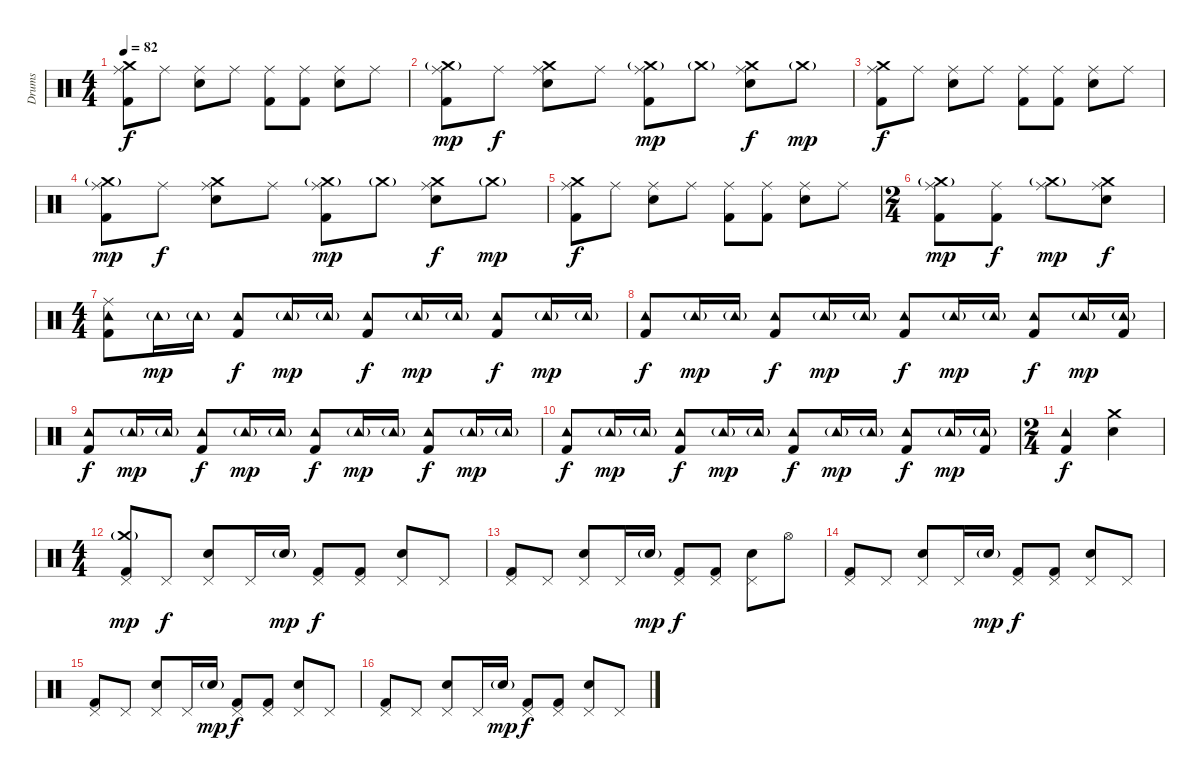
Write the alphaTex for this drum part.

\track ("Drums" "Drums") {instrument percussion}
\staff {score}
\articulation defaults
\ts (4 4)
\tempo 82
\clef neutral
\ks c
("Ride (middle)" "Kick (hit) 2" "Crash medium (hit)").8{dy f} "Ride (middle)".8 ("Ride (middle)" "Snare (hit) 2").8 "Ride (middle)".8 ("Ride (middle)" "Kick (hit) 2").8 ("Ride (middle)" "Kick (hit) 2").8 ("Ride (middle)" "Snare (hit) 2").8 "Ride (middle)".8 |
("Ride (middle)" "Kick (hit) 2" "Crash medium (hit)"{g}).8{dy mp} "Ride (middle)".8{dy f} ("Ride (middle)" "Snare (hit) 2" "Crash medium (hit)").8 "Ride (middle)".8 ("Ride (middle)" "Kick (hit) 2" "Crash medium (hit)"{g}).8{dy mp} "Crash medium (hit)"{g}.8 ("Ride (middle)" "Snare (hit) 2" "Crash medium (hit)").8{dy f} "Crash medium (hit)"{g}.8{dy mp} |
("Ride (middle)" "Kick (hit) 2" "Crash medium (hit)").8{dy f} "Ride (middle)".8 ("Ride (middle)" "Snare (hit) 2").8 "Ride (middle)".8 ("Ride (middle)" "Kick (hit) 2").8 ("Ride (middle)" "Kick (hit) 2").8 ("Ride (middle)" "Snare (hit) 2").8 "Ride (middle)".8 |
("Ride (middle)" "Kick (hit) 2" "Crash medium (hit)"{g}).8{dy mp} "Ride (middle)".8{dy f} ("Ride (middle)" "Snare (hit) 2" "Crash medium (hit)").8 "Ride (middle)".8 ("Ride (middle)" "Kick (hit) 2" "Crash medium (hit)"{g}).8{dy mp} "Crash medium (hit)"{g}.8 ("Ride (middle)" "Snare (hit) 2" "Crash medium (hit)").8{dy f} "Crash medium (hit)"{g}.8{dy mp} |
("Ride (middle)" "Kick (hit) 2" "Crash medium (hit)").8{dy f} "Ride (middle)".8 ("Ride (middle)" "Snare (hit) 2").8 "Ride (middle)".8 ("Ride (middle)" "Kick (hit) 2").8 ("Ride (middle)" "Kick (hit) 2").8 ("Ride (middle)" "Snare (hit) 2").8 "Ride (middle)".8 |
\ts (2 4)
("Ride (middle)" "Kick (hit) 2" "Crash medium (hit)"{g}).8{dy mp} ("Ride (middle)" "Kick (hit) 2").8{dy f} ("Ride (middle)" "Crash medium (hit)"{g}).8{dy mp} ("Ride (middle)" "Snare (hit) 2" "Crash medium (hit)").8{dy f} |
\ts (4 4)
("Tambourine (hit)" "Kick (hit) 2" "Ride (middle)").8 "Tambourine (hit)"{g}.16{dy mp} "Tambourine (hit)"{g}.16 ("Tambourine (hit)" "Kick (hit) 2").8{dy f} "Tambourine (hit)"{g}.16{dy mp} "Tambourine (hit)"{g}.16 ("Tambourine (hit)" "Kick (hit) 2").8{dy f} "Tambourine (hit)"{g}.16{dy mp} "Tambourine (hit)"{g}.16 ("Tambourine (hit)" "Kick (hit) 2").8{dy f} "Tambourine (hit)"{g}.16{dy mp} "Tambourine (hit)"{g}.16 |
("Tambourine (hit)" "Kick (hit) 2").8{dy f} "Tambourine (hit)"{g}.16{dy mp} "Tambourine (hit)"{g}.16 ("Tambourine (hit)" "Kick (hit) 2").8{dy f} "Tambourine (hit)"{g}.16{dy mp} "Tambourine (hit)"{g}.16 ("Tambourine (hit)" "Kick (hit) 2").8{dy f} "Tambourine (hit)"{g}.16{dy mp} "Tambourine (hit)"{g}.16 ("Tambourine (hit)" "Kick (hit) 2").8{dy f} "Tambourine (hit)"{g}.16{dy mp} ("Tambourine (hit)"{g} "Kick (hit) 2").16 |
("Tambourine (hit)" "Kick (hit) 2").8{dy f} "Tambourine (hit)"{g}.16{dy mp} "Tambourine (hit)"{g}.16 ("Tambourine (hit)" "Kick (hit) 2").8{dy f} "Tambourine (hit)"{g}.16{dy mp} "Tambourine (hit)"{g}.16 ("Tambourine (hit)" "Kick (hit) 2").8{dy f} "Tambourine (hit)"{g}.16{dy mp} "Tambourine (hit)"{g}.16 ("Tambourine (hit)" "Kick (hit) 2").8{dy f} "Tambourine (hit)"{g}.16{dy mp} "Tambourine (hit)"{g}.16 |
("Tambourine (hit)" "Kick (hit) 2").8{dy f} "Tambourine (hit)"{g}.16{dy mp} "Tambourine (hit)"{g}.16 ("Tambourine (hit)" "Kick (hit) 2").8{dy f} "Tambourine (hit)"{g}.16{dy mp} "Tambourine (hit)"{g}.16 ("Tambourine (hit)" "Kick (hit) 2").8{dy f} "Tambourine (hit)"{g}.16{dy mp} "Tambourine (hit)"{g}.16 ("Tambourine (hit)" "Kick (hit) 2").8{dy f} "Tambourine (hit)"{g}.16{dy mp} ("Tambourine (hit)"{g} "Kick (hit) 2").16 |
\ts (2 4)
("Tambourine (hit)" "Kick (hit) 2").4{dy f} ("Crash medium (hit)" "Snare (hit) 2").4 |
\ts (4 4)
("Pedal Hi-Hat (hit)" "Kick (hit) 2" "Crash medium (hit)"{g}).8{dy mp} "Pedal Hi-Hat (hit)".8{dy f} ("Pedal Hi-Hat (hit)" "Snare (hit) 2").8 "Pedal Hi-Hat (hit)".16 "Snare (hit) 2"{g}.16{dy mp} ("Pedal Hi-Hat (hit)" "Kick (hit) 2").8{dy f} ("Pedal Hi-Hat (hit)" "Kick (hit) 2").8 ("Pedal Hi-Hat (hit)" "Snare (hit) 2").8 "Pedal Hi-Hat (hit)".8 |
("Pedal Hi-Hat (hit)" "Kick (hit) 2").8 "Pedal Hi-Hat (hit)".8 ("Pedal Hi-Hat (hit)" "Snare (hit) 2").8 "Pedal Hi-Hat (hit)".16 "Snare (hit) 2"{g}.16{dy mp} ("Pedal Hi-Hat (hit)" "Kick (hit) 2").8{dy f} ("Pedal Hi-Hat (hit)" "Kick (hit) 2").8 ("Pedal Hi-Hat (hit)" "Snare (hit) 2").8 "Hi-Hat (open)".8 |
("Pedal Hi-Hat (hit)" "Kick (hit) 2").8 "Pedal Hi-Hat (hit)".8 ("Pedal Hi-Hat (hit)" "Snare (hit) 2").8 "Pedal Hi-Hat (hit)".16 "Snare (hit) 2"{g}.16{dy mp} ("Pedal Hi-Hat (hit)" "Kick (hit) 2").8{dy f} ("Pedal Hi-Hat (hit)" "Kick (hit) 2").8 ("Pedal Hi-Hat (hit)" "Snare (hit) 2").8 "Pedal Hi-Hat (hit)".8 |
("Pedal Hi-Hat (hit)" "Kick (hit) 2").8 "Pedal Hi-Hat (hit)".8 ("Pedal Hi-Hat (hit)" "Snare (hit) 2").8 "Pedal Hi-Hat (hit)".16 "Snare (hit) 2"{g}.16{dy mp} ("Pedal Hi-Hat (hit)" "Kick (hit) 2").8{dy f} ("Pedal Hi-Hat (hit)" "Kick (hit) 2").8 ("Pedal Hi-Hat (hit)" "Snare (hit) 2").8 "Pedal Hi-Hat (hit)".8 |
("Pedal Hi-Hat (hit)" "Kick (hit) 2").8 "Pedal Hi-Hat (hit)".8 ("Pedal Hi-Hat (hit)" "Snare (hit) 2").8 "Pedal Hi-Hat (hit)".16 "Snare (hit) 2"{g}.16{dy mp} ("Pedal Hi-Hat (hit)" "Kick (hit) 2").8{dy f} ("Pedal Hi-Hat (hit)" "Kick (hit) 2").8 ("Pedal Hi-Hat (hit)" "Snare (hit) 2").8 "Pedal Hi-Hat (hit)".8
